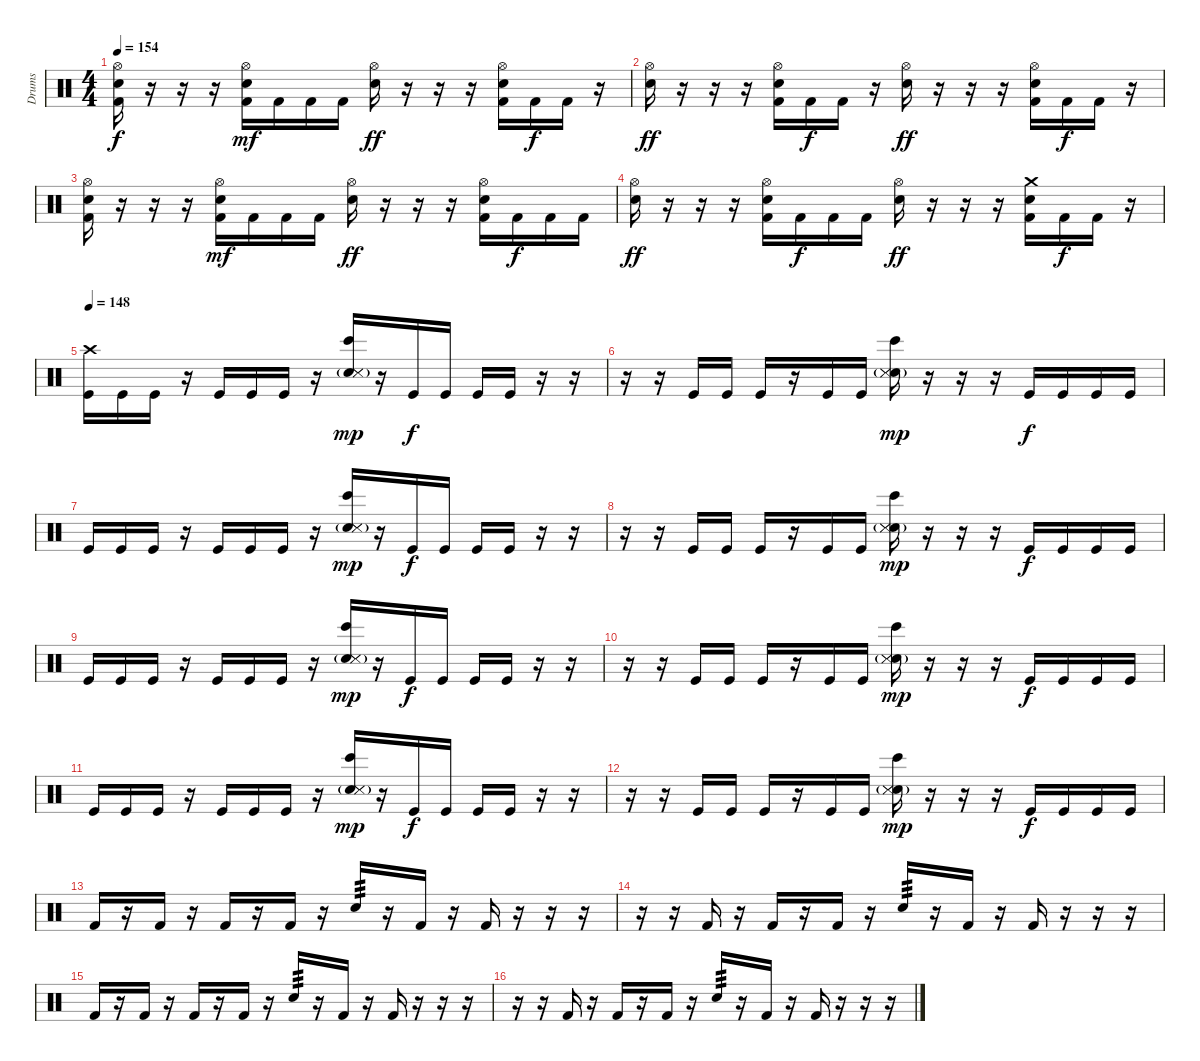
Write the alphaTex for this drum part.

\track ("Drums" "Drums") {instrument percussion}
\staff {score}
\articulation defaults
\ts (4 4)
\tempo 154
\clef neutral
\ks c
("Hi-Hat (open)" "Electric Snare (hit)" "Kick (hit) 2").16{dy f} r.16 r.16 r.16 ("Hi-Hat (open)" "Electric Snare (hit)" "Kick (hit) 2").16{dy mf} "Kick (hit) 2".16 "Kick (hit) 2".16 "Kick (hit) 2".16 ("Hi-Hat (open)" "Electric Snare (hit)").16{dy ff} r.16 r.16 r.16 ("Hi-Hat (open)" "Electric Snare (hit)" "Kick (hit) 2").16 "Kick (hit) 2".16{dy f} "Kick (hit) 2".16 r.16 |
("Hi-Hat (open)" "Electric Snare (hit)").16{dy ff} r.16 r.16 r.16 ("Hi-Hat (open)" "Electric Snare (hit)" "Kick (hit) 2").16 "Kick (hit) 2".16{dy f} "Kick (hit) 2".16 r.16 ("Hi-Hat (open)" "Electric Snare (hit)").16{dy ff} r.16 r.16 r.16 ("Hi-Hat (open)" "Electric Snare (hit)" "Kick (hit) 2").16 "Kick (hit) 2".16{dy f} "Kick (hit) 2".16 r.16 |
("Hi-Hat (open)" "Electric Snare (hit)" "Kick (hit) 2").16 r.16 r.16 r.16 ("Hi-Hat (open)" "Electric Snare (hit)" "Kick (hit) 2").16{dy mf} "Kick (hit) 2".16 "Kick (hit) 2".16 "Kick (hit) 2".16 ("Hi-Hat (open)" "Electric Snare (hit)").16{dy ff} r.16 r.16 r.16 ("Hi-Hat (open)" "Electric Snare (hit)" "Kick (hit) 2").16 "Kick (hit) 2".16{dy f} "Kick (hit) 2".16 "Kick (hit) 2".16 |
("Hi-Hat (open)" "Electric Snare (hit)").16{dy ff} r.16 r.16 r.16 ("Hi-Hat (open)" "Electric Snare (hit)" "Kick (hit) 2").16 "Kick (hit) 2".16{dy f} "Kick (hit) 2".16 "Kick (hit) 2".16 ("Hi-Hat (open)" "Electric Snare (hit)").16{dy ff} r.16 r.16 r.16 ("Crash medium (hit)" "Electric Snare (hit)" "Kick (hit) 2").16 "Kick (hit) 2".16{dy f} "Kick (hit) 2".16 r.16 |
\tempo 148
("Crash high (hit)" "Kick (hit)").16 "Kick (hit)".16 "Kick (hit)".16 r.16 "Kick (hit)".16 "Kick (hit)".16 "Kick (hit)".16 r.16 ("Electric Snare (hit)"{g} "Bongo High (hit)" "Snare (side stick) 3" "Metronome (hit)").16{dy mp} r.16 "Kick (hit)".16{dy f} "Kick (hit)".16 "Kick (hit)".16 "Kick (hit)".16 r.16 r.16 |
r.16 r.16 "Kick (hit)".16 "Kick (hit)".16 "Kick (hit)".16 r.16 "Kick (hit)".16 "Kick (hit)".16 ("Electric Snare (hit)"{g} "Bongo High (hit)" "Snare (side stick) 3" "Metronome (hit)").16{dy mp} r.16 r.16 r.16 "Kick (hit)".16{dy f} "Kick (hit)".16 "Kick (hit)".16 "Kick (hit)".16 |
"Kick (hit)".16 "Kick (hit)".16 "Kick (hit)".16 r.16 "Kick (hit)".16 "Kick (hit)".16 "Kick (hit)".16 r.16 ("Electric Snare (hit)"{g} "Bongo High (hit)" "Snare (side stick) 3" "Metronome (hit)").16{dy mp} r.16 "Kick (hit)".16{dy f} "Kick (hit)".16 "Kick (hit)".16 "Kick (hit)".16 r.16 r.16 |
r.16 r.16 "Kick (hit)".16 "Kick (hit)".16 "Kick (hit)".16 r.16 "Kick (hit)".16 "Kick (hit)".16 ("Electric Snare (hit)"{g} "Bongo High (hit)" "Snare (side stick) 3" "Metronome (hit)").16{dy mp} r.16 r.16 r.16 "Kick (hit)".16{dy f} "Kick (hit)".16 "Kick (hit)".16 "Kick (hit)".16 |
"Kick (hit)".16 "Kick (hit)".16 "Kick (hit)".16 r.16 "Kick (hit)".16 "Kick (hit)".16 "Kick (hit)".16 r.16 ("Electric Snare (hit)"{g} "Bongo High (hit)" "Snare (side stick) 3" "Metronome (hit)").16{dy mp} r.16 "Kick (hit)".16{dy f} "Kick (hit)".16 "Kick (hit)".16 "Kick (hit)".16 r.16 r.16 |
r.16 r.16 "Kick (hit)".16 "Kick (hit)".16 "Kick (hit)".16 r.16 "Kick (hit)".16 "Kick (hit)".16 ("Electric Snare (hit)"{g} "Bongo High (hit)" "Snare (side stick) 3" "Metronome (hit)").16{dy mp} r.16 r.16 r.16 "Kick (hit)".16{dy f} "Kick (hit)".16 "Kick (hit)".16 "Kick (hit)".16 |
"Kick (hit)".16 "Kick (hit)".16 "Kick (hit)".16 r.16 "Kick (hit)".16 "Kick (hit)".16 "Kick (hit)".16 r.16 ("Electric Snare (hit)"{g} "Bongo High (hit)" "Snare (side stick) 3" "Metronome (hit)").16{dy mp} r.16 "Kick (hit)".16{dy f} "Kick (hit)".16 "Kick (hit)".16 "Kick (hit)".16 r.16 r.16 |
r.16 r.16 "Kick (hit)".16 "Kick (hit)".16 "Kick (hit)".16 r.16 "Kick (hit)".16 "Kick (hit)".16 ("Electric Snare (hit)"{g} "Bongo High (hit)" "Snare (side stick) 3" "Metronome (hit)").16{dy mp} r.16 r.16 r.16 "Kick (hit)".16{dy f} "Kick (hit)".16 "Kick (hit)".16 "Kick (hit)".16 |
"Kick (hit) 2".16 r.16 "Kick (hit) 2".16 r.16 "Kick (hit) 2".16 r.16 "Kick (hit) 2".16 r.16 "Electric Snare (hit)".16{tp 3} r.16 "Kick (hit) 2".16 r.16 "Kick (hit) 2".16 r.16 r.16 r.16 |
r.16 r.16 "Kick (hit) 2".16 r.16 "Kick (hit) 2".16 r.16 "Kick (hit) 2".16 r.16 "Electric Snare (hit)".16{tp 3} r.16 "Kick (hit) 2".16 r.16 "Kick (hit) 2".16 r.16 r.16 r.16 |
"Kick (hit) 2".16 r.16 "Kick (hit) 2".16 r.16 "Kick (hit) 2".16 r.16 "Kick (hit) 2".16 r.16 "Electric Snare (hit)".16{tp 3} r.16 "Kick (hit) 2".16 r.16 "Kick (hit) 2".16 r.16 r.16 r.16 |
r.16 r.16 "Kick (hit) 2".16 r.16 "Kick (hit) 2".16 r.16 "Kick (hit) 2".16 r.16 "Electric Snare (hit)".16{tp 3} r.16 "Kick (hit) 2".16 r.16 "Kick (hit) 2".16 r.16 r.16 r.16
